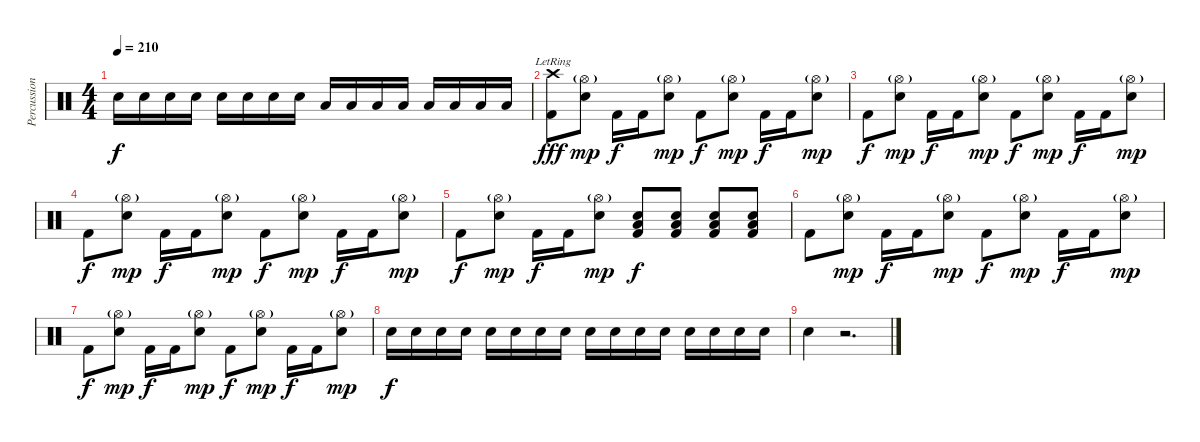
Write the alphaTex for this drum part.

\track ("Percussion" "Percussion") {instrument percussion}
\staff {score}
\articulation defaults
\ts (4 4)
\tempo 210
\clef neutral
\ks c "Snare (hit) 2".16{dy f} "Snare (hit) 2".16 "Snare (hit) 2".16 "Snare (hit) 2".16 "Snare (hit) 2".16 "Snare (hit) 2".16 "Snare (hit) 2".16 "Snare (hit) 2".16 "Low Tom (hit)".16 "Low Tom (hit)".16 "Low Tom (hit)".16 "Low Tom (hit)".16 "Low Floor Tom (hit)".16 "Low Floor Tom (hit)".16 "Low Floor Tom (hit)".16 "Low Floor Tom (hit)".16
|
("Crash high (hit)"{lr} "Kick (hit) 2").8{dy fff} ("Hi-Hat (open)"{g} "Snare (hit) 2").8{dy mp} "Kick (hit) 2".16{dy f} "Kick (hit) 2".16 ("Hi-Hat (open)"{g} "Snare (hit) 2").8{dy mp} "Kick (hit) 2".8{dy f} ("Hi-Hat (open)"{g} "Snare (hit) 2").8{dy mp} "Kick (hit) 2".16{dy f} "Kick (hit) 2".16 ("Hi-Hat (open)"{g} "Snare (hit) 2").8{dy mp} |
"Kick (hit) 2".8{dy f} ("Hi-Hat (open)"{g} "Snare (hit) 2").8{dy mp} "Kick (hit) 2".16{dy f} "Kick (hit) 2".16 ("Hi-Hat (open)"{g} "Snare (hit) 2").8{dy mp} "Kick (hit) 2".8{dy f} ("Hi-Hat (open)"{g} "Snare (hit) 2").8{dy mp} "Kick (hit) 2".16{dy f} "Kick (hit) 2".16 ("Hi-Hat (open)"{g} "Snare (hit) 2").8{dy mp} |
"Kick (hit) 2".8{dy f} ("Hi-Hat (open)"{g} "Snare (hit) 2").8{dy mp} "Kick (hit) 2".16{dy f} "Kick (hit) 2".16 ("Hi-Hat (open)"{g} "Snare (hit) 2").8{dy mp} "Kick (hit) 2".8{dy f} ("Hi-Hat (open)"{g} "Snare (hit) 2").8{dy mp} "Kick (hit) 2".16{dy f} "Kick (hit) 2".16 ("Hi-Hat (open)"{g} "Snare (hit) 2").8{dy mp} |
"Kick (hit) 2".8{dy f} ("Hi-Hat (open)"{g} "Snare (hit) 2").8{dy mp} "Kick (hit) 2".16{dy f} "Kick (hit) 2".16 ("Hi-Hat (open)"{g} "Snare (hit) 2").8{dy mp} ("Low Tom (hit)" "Snare (hit) 2" "Kick (hit) 2").8{dy f} ("Low Tom (hit)" "Snare (hit) 2" "Kick (hit) 2").8 ("Low Tom (hit)" "Snare (hit) 2" "Kick (hit) 2").8 ("Low Tom (hit)" "Snare (hit) 2" "Kick (hit) 2").8 |
"Kick (hit) 2".8 ("Hi-Hat (open)"{g} "Snare (hit) 2").8{dy mp} "Kick (hit) 2".16{dy f} "Kick (hit) 2".16 ("Hi-Hat (open)"{g} "Snare (hit) 2").8{dy mp} "Kick (hit) 2".8{dy f} ("Hi-Hat (open)"{g} "Snare (hit) 2").8{dy mp} "Kick (hit) 2".16{dy f} "Kick (hit) 2".16 ("Hi-Hat (open)"{g} "Snare (hit) 2").8{dy mp} |
"Kick (hit) 2".8{dy f} ("Hi-Hat (open)"{g} "Snare (hit) 2").8{dy mp} "Kick (hit) 2".16{dy f} "Kick (hit) 2".16 ("Hi-Hat (open)"{g} "Snare (hit) 2").8{dy mp} "Kick (hit) 2".8{dy f} ("Hi-Hat (open)"{g} "Snare (hit) 2").8{dy mp} "Kick (hit) 2".16{dy f} "Kick (hit) 2".16 ("Hi-Hat (open)"{g} "Snare (hit) 2").8{dy mp} |
"Snare (hit) 2".16{dy f} "Snare (hit) 2".16 "Snare (hit) 2".16 "Snare (hit) 2".16 "Snare (hit) 2".16 "Snare (hit) 2".16 "Snare (hit) 2".16 "Snare (hit) 2".16 "Snare (hit) 2".16 "Snare (hit) 2".16 "Snare (hit) 2".16 "Snare (hit) 2".16 "Snare (hit) 2".16 "Snare (hit) 2".16 "Snare (hit) 2".16 "Snare (hit) 2".16 |
"Snare (hit) 2".4 r.2{d}
